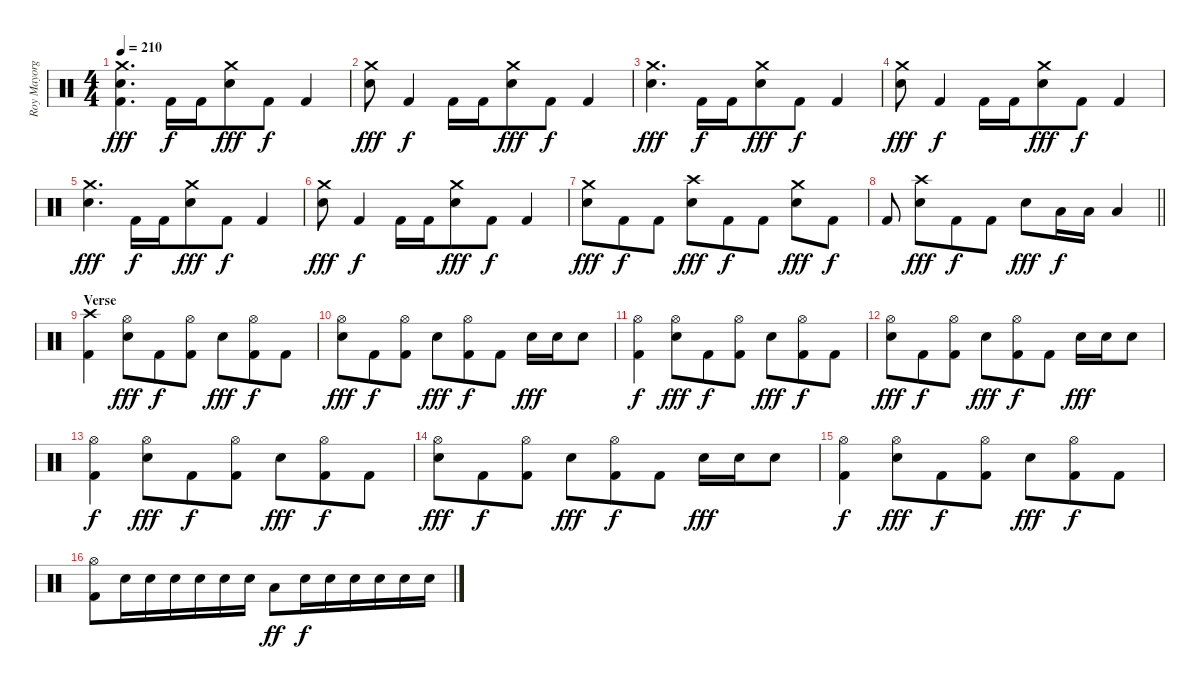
\track ("Roy Mayorga" "Roy Mayorg") {instrument percussion}
\staff {score}
\articulation defaults
\ts (4 4)
\tempo 210
\clef neutral
\ks c
("Crash medium (hit)" "Electric Snare (hit)" "Kick (hit) 2").4{d dy fff} "Kick (hit) 2".16{dy f beam merge} "Kick (hit) 2".16{beam merge} ("Crash medium (hit)" "Electric Snare (hit)").8{dy fff} "Kick (hit) 2".8{dy f} "Kick (hit) 2".4 |
("Crash medium (hit)" "Electric Snare (hit)").8{dy fff} "Kick (hit) 2".4{dy f} "Kick (hit) 2".16 "Kick (hit) 2".16{beam merge} ("Crash medium (hit)" "Electric Snare (hit)").8{dy fff} "Kick (hit) 2".8{dy f} "Kick (hit) 2".4 |
("Crash medium (hit)" "Electric Snare (hit)").4{d dy fff} "Kick (hit) 2".16{dy f} "Kick (hit) 2".16{beam merge} ("Crash medium (hit)" "Electric Snare (hit)").8{dy fff} "Kick (hit) 2".8{dy f} "Kick (hit) 2".4 |
("Crash medium (hit)" "Electric Snare (hit)").8{dy fff} "Kick (hit) 2".4{dy f} "Kick (hit) 2".16 "Kick (hit) 2".16{beam merge} ("Crash medium (hit)" "Electric Snare (hit)").8{dy fff} "Kick (hit) 2".8{dy f} "Kick (hit) 2".4 |
("Crash medium (hit)" "Electric Snare (hit)").4{d dy fff} "Kick (hit) 2".16{dy f} "Kick (hit) 2".16{beam merge} ("Crash medium (hit)" "Electric Snare (hit)").8{dy fff} "Kick (hit) 2".8{dy f} "Kick (hit) 2".4 |
("Crash medium (hit)" "Electric Snare (hit)").8{dy fff} "Kick (hit) 2".4{dy f} "Kick (hit) 2".16 "Kick (hit) 2".16{beam merge} ("Crash medium (hit)" "Electric Snare (hit)").8{dy fff} "Kick (hit) 2".8{dy f} "Kick (hit) 2".4 |
("Crash medium (hit)" "Electric Snare (hit)").8{dy fff} "Kick (hit) 2".8{dy f beam merge} "Kick (hit) 2".8{beam split} ("Crash high (hit)" "Electric Snare (hit)").8{dy fff beam merge} "Kick (hit) 2".8{dy f} "Kick (hit) 2".8{beam split} ("Crash medium (hit)" "Electric Snare (hit)").8{dy fff} "Kick (hit) 2".8{dy f} |
\barLineRight lightlight "Kick (hit) 2".8{beam split}
("Crash high (hit)" "Electric Snare (hit)").8{dy fff beam merge} "Kick (hit) 2".8{dy f} "Kick (hit) 2".8 "Electric Snare (hit)".8{dy fff} "Low Tom (hit)".16{dy f} "Low Tom (hit)".16 "Low Tom (hit)".4 |
\section ("" "Verse")
("Crash high (hit)" "Kick (hit) 2").4 ("Hi-Hat (open)" "Electric Snare (hit)").8{dy fff} "Kick (hit) 2".8{dy f beam merge} ("Hi-Hat (open)" "Kick (hit) 2").8{beam split} "Electric Snare (hit)".8{dy fff beam merge} ("Hi-Hat (open)" "Kick (hit) 2").8{dy f} "Kick (hit) 2".8 |
("Hi-Hat (open)" "Electric Snare (hit)").8{dy fff} "Kick (hit) 2".8{dy f beam merge} ("Hi-Hat (open)" "Kick (hit) 2").8{beam split} "Electric Snare (hit)".8{dy fff beam merge} ("Hi-Hat (open)" "Kick (hit) 2").8{dy f} "Kick (hit) 2".8 "Electric Snare (hit)".16{dy fff} "Electric Snare (hit)".16 "Electric Snare (hit)".8 |
("Hi-Hat (open)" "Kick (hit) 2").4{dy f} ("Hi-Hat (open)" "Electric Snare (hit)").8{dy fff} "Kick (hit) 2".8{dy f beam merge} ("Hi-Hat (open)" "Kick (hit) 2").8{beam split} "Electric Snare (hit)".8{dy fff beam merge} ("Hi-Hat (open)" "Kick (hit) 2").8{dy f} "Kick (hit) 2".8 |
("Hi-Hat (open)" "Electric Snare (hit)").8{dy fff} "Kick (hit) 2".8{dy f beam merge} ("Hi-Hat (open)" "Kick (hit) 2").8{beam split} "Electric Snare (hit)".8{dy fff beam merge} ("Hi-Hat (open)" "Kick (hit) 2").8{dy f} "Kick (hit) 2".8 "Electric Snare (hit)".16{dy fff} "Electric Snare (hit)".16 "Electric Snare (hit)".8 |
("Hi-Hat (open)" "Kick (hit) 2").4{dy f} ("Hi-Hat (open)" "Electric Snare (hit)").8{dy fff} "Kick (hit) 2".8{dy f beam merge} ("Hi-Hat (open)" "Kick (hit) 2").8{beam split} "Electric Snare (hit)".8{dy fff beam merge} ("Hi-Hat (open)" "Kick (hit) 2").8{dy f} "Kick (hit) 2".8 |
("Hi-Hat (open)" "Electric Snare (hit)").8{dy fff} "Kick (hit) 2".8{dy f beam merge} ("Hi-Hat (open)" "Kick (hit) 2").8{beam split} "Electric Snare (hit)".8{dy fff beam merge} ("Hi-Hat (open)" "Kick (hit) 2").8{dy f} "Kick (hit) 2".8 "Electric Snare (hit)".16{dy fff} "Electric Snare (hit)".16 "Electric Snare (hit)".8 |
("Hi-Hat (open)" "Kick (hit) 2").4{dy f} ("Hi-Hat (open)" "Electric Snare (hit)").8{dy fff} "Kick (hit) 2".8{dy f beam merge} ("Hi-Hat (open)" "Kick (hit) 2").8{beam split} "Electric Snare (hit)".8{dy fff beam merge} ("Hi-Hat (open)" "Kick (hit) 2").8{dy f} "Kick (hit) 2".8 |
("Hi-Hat (open)" "Kick (hit) 2").8 "Electric Snare (hit)".16 "Electric Snare (hit)".16{beam merge} "Electric Snare (hit)".16 "Electric Snare (hit)".16 "Electric Snare (hit)".16 "Electric Snare (hit)".16 "Low Tom (hit)".8{dy ff beam merge} "Electric Snare (hit)".16{dy f} "Electric Snare (hit)".16{beam merge} "Electric Snare (hit)".16 "Electric Snare (hit)".16 "Electric Snare (hit)".16 "Electric Snare (hit)".16
